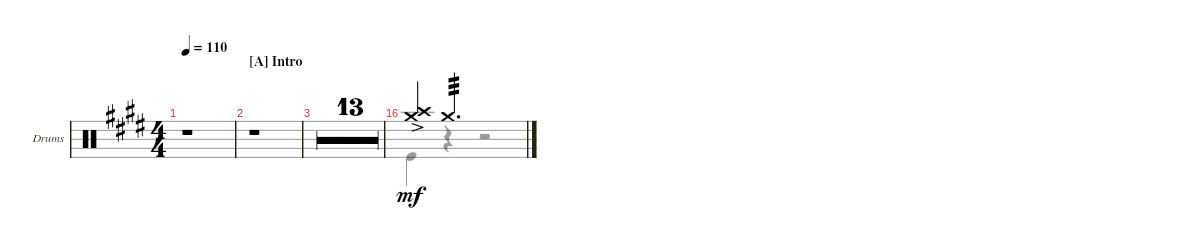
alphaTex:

\defaultSystemsLayout 4
\bracketExtendMode groupsimilarinstruments
\firstSystemTrackNameOrientation horizontal
\otherSystemsTrackNameOrientation horizontal
\track ("Drums" "Drums") {multiBarRest instrument percussion}
\staff {score}
\articulation defaults
\voice
\ts (4 4)
\beaming (8 2 2 2 2)
\tempo 110
\clef neutral
\ks e
r.1{dy mf} |
\section ("A" "Intro")
r.1 |
r.1 |
r.1 |
r.1 |
r.1 |
\barLineRight lightlight
r.1 |
r.1 |
r.1 |
r.1 |
r.1 |
r.1 |
r.1 |
r.1 |
r.1 |
("Crash medium (hit)"{ac} "Crash high (hit)"{ac}).4 "Crash medium (hit)".2{d tp 3}
\voice
\clef neutral
\ottava regular
\simile none
\ks e
|
|
|
|
|
|
\barLineRight lightlight
|
|
|
|
|
|
|
|
|
"Kick (hit)".4 r.4 r.2
